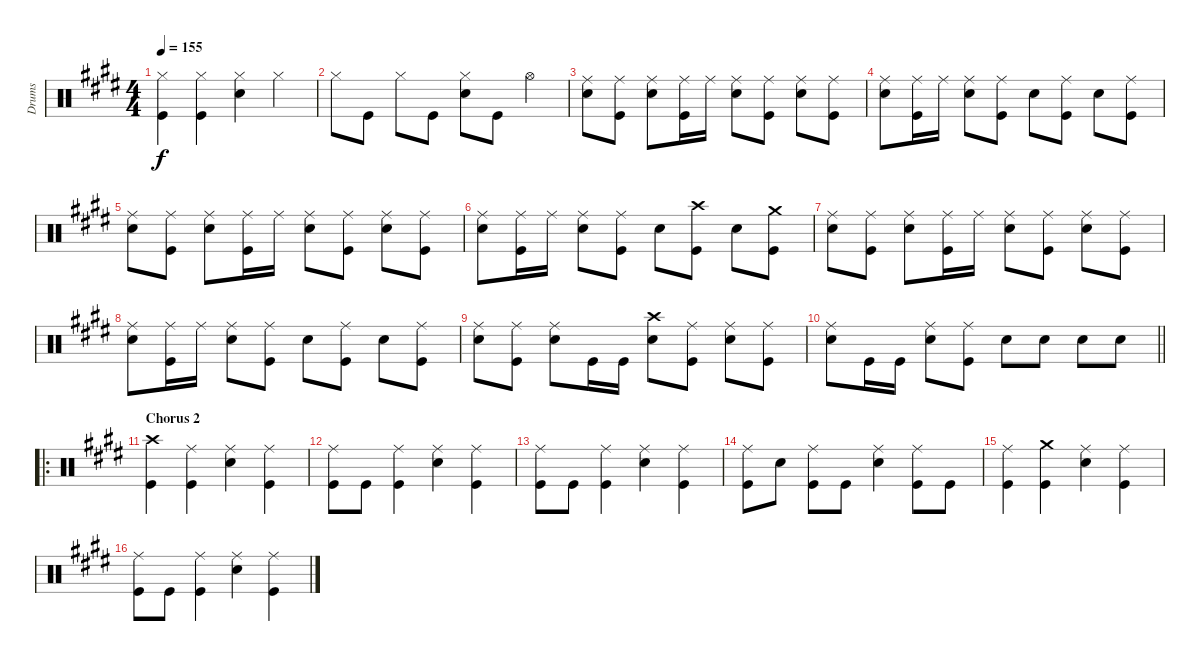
\track ("Drums" "Drums") {instrument percussion}
\staff {score}
\articulation defaults
\ts (4 4)
\tempo 155
\clef neutral
\ks e
("Hi-Hat (closed)" "Kick (hit)").4{dy f} ("Hi-Hat (closed)" "Kick (hit)").4 ("Hi-Hat (closed)" "Snare (hit) 2").4 "Hi-Hat (closed)".4 |
"Hi-Hat (closed)".8 "Kick (hit)".8 "Hi-Hat (closed)".8 "Kick (hit)".8 ("Hi-Hat (closed)" "Snare (hit) 2").8 "Kick (hit)".8 "Hi-Hat (open)".4 |
("Ride (middle)" "Snare (hit) 2").8 ("Ride (middle)" "Kick (hit)").8 ("Ride (middle)" "Snare (hit) 2").8 ("Ride (middle)" "Kick (hit)").16 "Ride (middle)".16 ("Ride (middle)" "Snare (hit) 2").8 ("Ride (middle)" "Kick (hit)").8 ("Ride (middle)" "Snare (hit) 2").8 ("Ride (middle)" "Kick (hit)").8 |
("Ride (middle)" "Snare (hit) 2").8 ("Ride (middle)" "Kick (hit)").16 "Ride (middle)".16 ("Ride (middle)" "Snare (hit) 2").8 ("Ride (middle)" "Kick (hit)").8 "Snare (hit) 2".8 ("Ride (middle)" "Kick (hit)").8 "Snare (hit) 2".8 ("Ride (middle)" "Kick (hit)").8 |
("Ride (middle)" "Snare (hit) 2").8 ("Ride (middle)" "Kick (hit)").8 ("Ride (middle)" "Snare (hit) 2").8 ("Ride (middle)" "Kick (hit)").16 "Ride (middle)".16 ("Ride (middle)" "Snare (hit) 2").8 ("Ride (middle)" "Kick (hit)").8 ("Ride (middle)" "Snare (hit) 2").8 ("Ride (middle)" "Kick (hit)").8 |
("Ride (middle)" "Snare (hit) 2").8 ("Ride (middle)" "Kick (hit)").16 "Ride (middle)".16 ("Ride (middle)" "Snare (hit) 2").8 ("Ride (middle)" "Kick (hit)").8 "Snare (hit) 2".8 ("Crash high (hit)" "Kick (hit)").8 "Snare (hit) 2".8 ("Crash medium (hit)" "Kick (hit)").8 |
("Ride (middle)" "Snare (hit) 2").8 ("Ride (middle)" "Kick (hit)").8 ("Ride (middle)" "Snare (hit) 2").8 ("Ride (middle)" "Kick (hit)").16 "Ride (middle)".16 ("Ride (middle)" "Snare (hit) 2").8 ("Ride (middle)" "Kick (hit)").8 ("Ride (middle)" "Snare (hit) 2").8 ("Ride (middle)" "Kick (hit)").8 |
("Ride (middle)" "Snare (hit) 2").8 ("Ride (middle)" "Kick (hit)").16 "Ride (middle)".16 ("Ride (middle)" "Snare (hit) 2").8 ("Ride (middle)" "Kick (hit)").8 "Snare (hit) 2".8 ("Ride (middle)" "Kick (hit)").8 "Snare (hit) 2".8 ("Ride (middle)" "Kick (hit)").8 |
("Ride (middle)" "Snare (hit) 2").8 ("Ride (middle)" "Kick (hit)").8 ("Ride (middle)" "Snare (hit) 2").8 "Kick (hit)".16 "Kick (hit)".16 ("Crash high (hit)" "Snare (hit) 2").8 ("Ride (middle)" "Kick (hit)").8 ("Ride (middle)" "Snare (hit) 2").8 ("Ride (middle)" "Kick (hit)").8 |
\barLineRight lightlight
("Ride (middle)" "Snare (hit) 2").8 "Kick (hit)".16 "Kick (hit)".16 ("Ride (middle)" "Snare (hit) 2").8 ("Ride (middle)" "Kick (hit)").8 "Snare (hit) 2".8 "Snare (hit) 2".8 "Snare (hit) 2".8 "Snare (hit) 2".8 |
\ro
\section ("" "Chorus 2")
("Crash high (hit)" "Kick (hit)").4 ("Ride (middle)" "Kick (hit)").4 ("Ride (middle)" "Snare (hit) 2").4 ("Ride (middle)" "Kick (hit)").4 |
("Ride (middle)" "Kick (hit)").8 "Kick (hit)".8 ("Ride (middle)" "Kick (hit)").4 ("Ride (middle)" "Snare (hit) 2").4 ("Ride (middle)" "Kick (hit)").4 |
("Ride (middle)" "Kick (hit)").8 "Kick (hit)".8 ("Ride (middle)" "Kick (hit)").4 ("Ride (middle)" "Snare (hit) 2").4 ("Ride (middle)" "Kick (hit)").4 |
("Ride (middle)" "Kick (hit)").8 "Snare (hit) 2".8 ("Ride (middle)" "Kick (hit)").8 "Kick (hit)".8 ("Ride (middle)" "Snare (hit) 2").4 ("Ride (middle)" "Kick (hit)").8 "Kick (hit)".8 |
("Ride (middle)" "Kick (hit)").4 ("Crash medium (hit)" "Kick (hit)").4 ("Ride (middle)" "Snare (hit) 2").4 ("Ride (middle)" "Kick (hit)").4 |
("Ride (middle)" "Kick (hit)").8 "Kick (hit)".8 ("Ride (middle)" "Kick (hit)").4 ("Ride (middle)" "Snare (hit) 2").4 ("Ride (middle)" "Kick (hit)").4
